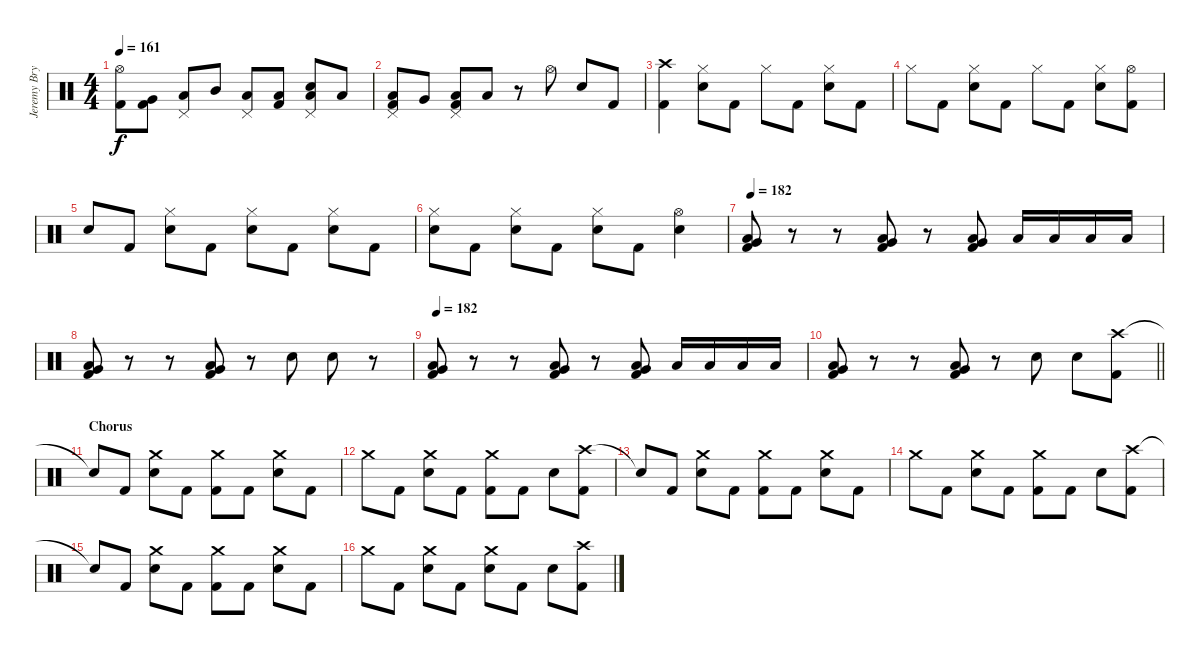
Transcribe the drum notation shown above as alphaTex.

\track ("Jeremy Bryan - Drums" "Jeremy Bry") {instrument percussion}
\staff {score}
\articulation defaults
\ts (4 4)
\tempo 161
\clef neutral
\ks c
("Hi-Hat (open)" "Kick (hit) 2").8{dy f} ("Very Low Tom (hit)" "Kick (hit) 2").8 ("Pedal Hi-Hat (hit)" "Low Tom (hit)").8 "Mid Tom (hit)".8 ("Pedal Hi-Hat (hit)" "Low Floor Tom (hit)").8 ("Low Floor Tom (hit)" "Kick (hit) 2").8 ("Pedal Hi-Hat (hit)" "Low Floor Tom (hit)" "Electric Snare (hit)").8 "Low Floor Tom (hit)".8 |
("Pedal Hi-Hat (hit)" "Low Floor Tom (hit)" "Kick (hit) 2").8 "Very Low Tom (hit)".8 ("Pedal Hi-Hat (hit)" "Low Tom (hit)" "Kick (hit) 2").8 "Low Tom (hit)".8 r.8 "Hi-Hat (open)".8 "Electric Snare (hit)".8 "Kick (hit) 2".8 |
("Crash high (hit)" "Kick (hit) 2").4 ("Hi-Hat (closed)" "Electric Snare (hit)").8 "Kick (hit) 2".8 "Hi-Hat (closed)".8 "Kick (hit) 2".8 ("Hi-Hat (closed)" "Electric Snare (hit)").8 "Kick (hit) 2".8 |
"Hi-Hat (closed)".8 "Kick (hit) 2".8 ("Hi-Hat (closed)" "Electric Snare (hit)").8 "Kick (hit) 2".8 "Hi-Hat (closed)".8 "Kick (hit) 2".8 ("Hi-Hat (closed)" "Electric Snare (hit)").8 ("Hi-Hat (open)" "Kick (hit) 2").8 |
"Electric Snare (hit)".8 "Kick (hit) 2".8 ("Hi-Hat (closed)" "Electric Snare (hit)").8 "Kick (hit) 2".8 ("Hi-Hat (closed)" "Electric Snare (hit)").8 "Kick (hit) 2".8 ("Hi-Hat (closed)" "Electric Snare (hit)").8 "Kick (hit) 2".8 |
("Hi-Hat (closed)" "Electric Snare (hit)").8 "Kick (hit) 2".8 ("Hi-Hat (closed)" "Electric Snare (hit)").8 "Kick (hit) 2".8 ("Hi-Hat (closed)" "Electric Snare (hit)").8 "Kick (hit) 2".8 ("Hi-Hat (open)" "Electric Snare (hit)").4 |
\tempo 182
("Low Floor Tom (hit)" "Very Low Tom (hit)" "Kick (hit) 2").8 r.8 r.8 ("Low Floor Tom (hit)" "Very Low Tom (hit)" "Kick (hit) 2").8 r.8 ("Low Floor Tom (hit)" "Very Low Tom (hit)" "Kick (hit) 2").8 "Low Floor Tom (hit)".16 "Low Floor Tom (hit)".16 "Low Floor Tom (hit)".16 "Low Floor Tom (hit)".16 |
("Low Floor Tom (hit)" "Very Low Tom (hit)" "Kick (hit) 2").8 r.8 r.8 ("Low Floor Tom (hit)" "Very Low Tom (hit)" "Kick (hit) 2").8 r.8 "Electric Snare (hit)".8 "Electric Snare (hit)".8 r.8 |
\tempo 182
("Low Floor Tom (hit)" "Very Low Tom (hit)" "Kick (hit) 2").8 r.8 r.8 ("Low Floor Tom (hit)" "Very Low Tom (hit)" "Kick (hit) 2").8 r.8 ("Low Floor Tom (hit)" "Very Low Tom (hit)" "Kick (hit) 2").8 "Low Floor Tom (hit)".16 "Low Floor Tom (hit)".16 "Low Floor Tom (hit)".16 "Low Floor Tom (hit)".16 |
\barLineRight lightlight
("Low Floor Tom (hit)" "Very Low Tom (hit)" "Kick (hit) 2").8 r.8 r.8 ("Low Floor Tom (hit)" "Very Low Tom (hit)" "Kick (hit) 2").8 r.8 "Electric Snare (hit)".8 "Electric Snare (hit)".8 ("Crash high (hit)" "Kick (hit) 2").8 |
\section ("" "Chorus")
"Snare (hit)"{t}.8 "Kick (hit) 2".8 ("Crash medium (hit)" "Electric Snare (hit)").8 "Kick (hit) 2".8 ("Crash medium (hit)" "Kick (hit) 2").8 "Kick (hit) 2".8 ("Crash medium (hit)" "Electric Snare (hit)").8 "Kick (hit) 2".8 |
"Crash medium (hit)".8 "Kick (hit) 2".8 ("Crash medium (hit)" "Electric Snare (hit)").8 "Kick (hit) 2".8 ("Crash medium (hit)" "Kick (hit) 2").8 "Kick (hit) 2".8 "Electric Snare (hit)".8 ("Crash high (hit)" "Kick (hit) 2").8 |
"Snare (hit)"{t}.8 "Kick (hit) 2".8 ("Crash medium (hit)" "Electric Snare (hit)").8 "Kick (hit) 2".8 ("Crash medium (hit)" "Kick (hit) 2").8 "Kick (hit) 2".8 ("Crash medium (hit)" "Electric Snare (hit)").8 "Kick (hit) 2".8 |
"Crash medium (hit)".8 "Kick (hit) 2".8 ("Crash medium (hit)" "Electric Snare (hit)").8 "Kick (hit) 2".8 ("Crash medium (hit)" "Kick (hit) 2").8 "Kick (hit) 2".8 "Electric Snare (hit)".8 ("Crash high (hit)" "Kick (hit) 2").8 |
"Snare (hit)"{t}.8 "Kick (hit) 2".8 ("Crash medium (hit)" "Electric Snare (hit)").8 "Kick (hit) 2".8 ("Crash medium (hit)" "Kick (hit) 2").8 "Kick (hit) 2".8 ("Crash medium (hit)" "Electric Snare (hit)").8 "Kick (hit) 2".8 |
"Crash medium (hit)".8 "Kick (hit) 2".8 ("Crash medium (hit)" "Electric Snare (hit)").8 "Kick (hit) 2".8 ("Crash medium (hit)" "Electric Snare (hit)").8 "Kick (hit) 2".8 "Electric Snare (hit)".8 ("Crash high (hit)" "Kick (hit) 2").8
